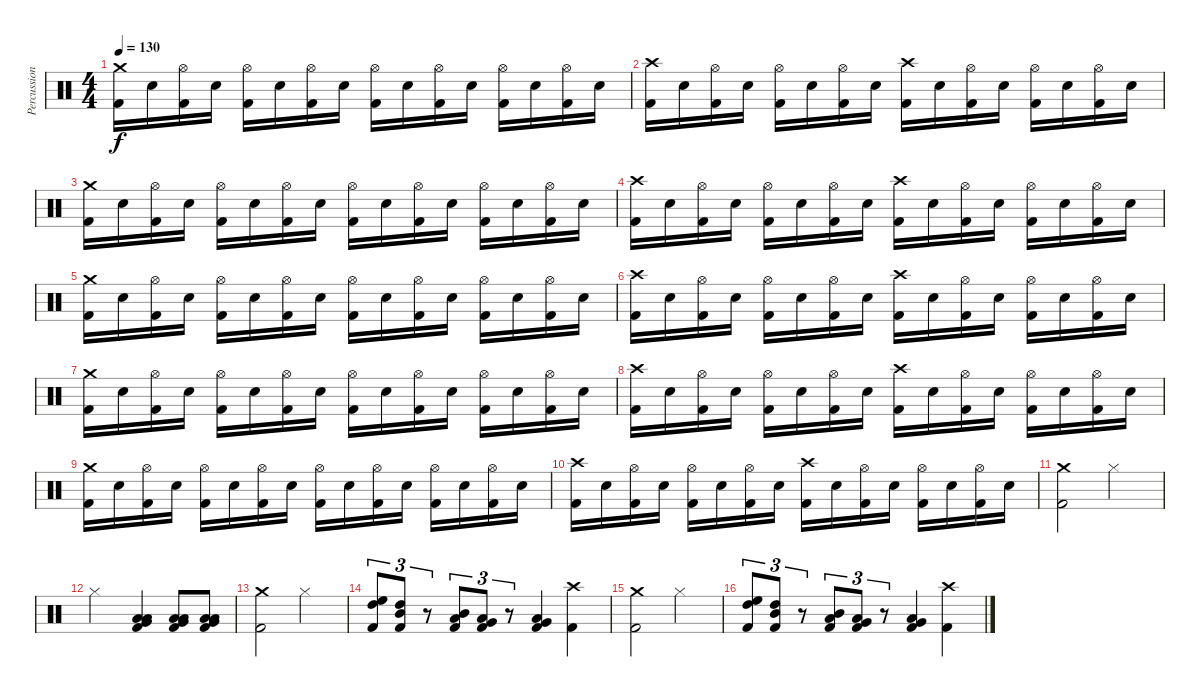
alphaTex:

\track ("Percussion" "Percussion") {instrument percussion}
\staff {score}
\articulation defaults
\ts (4 4)
\tempo 130
\clef neutral
\ks c
("Kick (hit) 2" "Crash medium (hit)").16{dy f} "Electric Snare (hit)".16 ("Kick (hit) 2" "Hi-Hat (open)").16 "Electric Snare (hit)".16 ("Kick (hit) 2" "Hi-Hat (open)").16 "Electric Snare (hit)".16 ("Kick (hit) 2" "Hi-Hat (open)").16 "Electric Snare (hit)".16 ("Kick (hit) 2" "Hi-Hat (open)").16 "Electric Snare (hit)".16 ("Kick (hit) 2" "Hi-Hat (open)").16 "Electric Snare (hit)".16 ("Kick (hit) 2" "Hi-Hat (open)").16 "Electric Snare (hit)".16 ("Kick (hit) 2" "Hi-Hat (open)").16 "Electric Snare (hit)".16 |
("Kick (hit) 2" "Crash high (hit)").16 "Electric Snare (hit)".16 ("Kick (hit) 2" "Hi-Hat (open)").16 "Electric Snare (hit)".16 ("Kick (hit) 2" "Hi-Hat (open)").16 "Electric Snare (hit)".16 ("Kick (hit) 2" "Hi-Hat (open)").16 "Electric Snare (hit)".16 ("Kick (hit) 2" "Crash high (hit)").16 "Electric Snare (hit)".16 ("Kick (hit) 2" "Hi-Hat (open)").16 "Electric Snare (hit)".16 ("Kick (hit) 2" "Hi-Hat (open)").16 "Electric Snare (hit)".16 ("Kick (hit) 2" "Hi-Hat (open)").16 "Electric Snare (hit)".16 |
("Kick (hit) 2" "Crash medium (hit)").16 "Electric Snare (hit)".16 ("Kick (hit) 2" "Hi-Hat (open)").16 "Electric Snare (hit)".16 ("Kick (hit) 2" "Hi-Hat (open)").16 "Electric Snare (hit)".16 ("Kick (hit) 2" "Hi-Hat (open)").16 "Electric Snare (hit)".16 ("Kick (hit) 2" "Hi-Hat (open)").16 "Electric Snare (hit)".16 ("Kick (hit) 2" "Hi-Hat (open)").16 "Electric Snare (hit)".16 ("Kick (hit) 2" "Hi-Hat (open)").16 "Electric Snare (hit)".16 ("Kick (hit) 2" "Hi-Hat (open)").16 "Electric Snare (hit)".16 |
("Kick (hit) 2" "Crash high (hit)").16 "Electric Snare (hit)".16 ("Kick (hit) 2" "Hi-Hat (open)").16 "Electric Snare (hit)".16 ("Kick (hit) 2" "Hi-Hat (open)").16 "Electric Snare (hit)".16 ("Kick (hit) 2" "Hi-Hat (open)").16 "Electric Snare (hit)".16 ("Kick (hit) 2" "Crash high (hit)").16 "Electric Snare (hit)".16 ("Kick (hit) 2" "Hi-Hat (open)").16 "Electric Snare (hit)".16 ("Kick (hit) 2" "Hi-Hat (open)").16 "Electric Snare (hit)".16 ("Kick (hit) 2" "Hi-Hat (open)").16 "Electric Snare (hit)".16 |
("Kick (hit) 2" "Crash medium (hit)").16 "Electric Snare (hit)".16 ("Kick (hit) 2" "Hi-Hat (open)").16 "Electric Snare (hit)".16 ("Kick (hit) 2" "Hi-Hat (open)").16 "Electric Snare (hit)".16 ("Kick (hit) 2" "Hi-Hat (open)").16 "Electric Snare (hit)".16 ("Kick (hit) 2" "Hi-Hat (open)").16 "Electric Snare (hit)".16 ("Kick (hit) 2" "Hi-Hat (open)").16 "Electric Snare (hit)".16 ("Kick (hit) 2" "Hi-Hat (open)").16 "Electric Snare (hit)".16 ("Kick (hit) 2" "Hi-Hat (open)").16 "Electric Snare (hit)".16 |
("Kick (hit) 2" "Crash high (hit)").16 "Electric Snare (hit)".16 ("Kick (hit) 2" "Hi-Hat (open)").16 "Electric Snare (hit)".16 ("Kick (hit) 2" "Hi-Hat (open)").16 "Electric Snare (hit)".16 ("Kick (hit) 2" "Hi-Hat (open)").16 "Electric Snare (hit)".16 ("Kick (hit) 2" "Crash high (hit)").16 "Electric Snare (hit)".16 ("Kick (hit) 2" "Hi-Hat (open)").16 "Electric Snare (hit)".16 ("Kick (hit) 2" "Hi-Hat (open)").16 "Electric Snare (hit)".16 ("Kick (hit) 2" "Hi-Hat (open)").16 "Electric Snare (hit)".16 |
("Kick (hit) 2" "Crash medium (hit)").16 "Electric Snare (hit)".16 ("Kick (hit) 2" "Hi-Hat (open)").16 "Electric Snare (hit)".16 ("Kick (hit) 2" "Hi-Hat (open)").16 "Electric Snare (hit)".16 ("Kick (hit) 2" "Hi-Hat (open)").16 "Electric Snare (hit)".16 ("Kick (hit) 2" "Hi-Hat (open)").16 "Electric Snare (hit)".16 ("Kick (hit) 2" "Hi-Hat (open)").16 "Electric Snare (hit)".16 ("Kick (hit) 2" "Hi-Hat (open)").16 "Electric Snare (hit)".16 ("Kick (hit) 2" "Hi-Hat (open)").16 "Electric Snare (hit)".16 |
("Kick (hit) 2" "Crash high (hit)").16 "Electric Snare (hit)".16 ("Kick (hit) 2" "Hi-Hat (open)").16 "Electric Snare (hit)".16 ("Kick (hit) 2" "Hi-Hat (open)").16 "Electric Snare (hit)".16 ("Kick (hit) 2" "Hi-Hat (open)").16 "Electric Snare (hit)".16 ("Kick (hit) 2" "Crash high (hit)").16 "Electric Snare (hit)".16 ("Kick (hit) 2" "Hi-Hat (open)").16 "Electric Snare (hit)".16 ("Kick (hit) 2" "Hi-Hat (open)").16 "Electric Snare (hit)".16 ("Kick (hit) 2" "Hi-Hat (open)").16 "Electric Snare (hit)".16 |
("Kick (hit) 2" "Crash medium (hit)").16 "Electric Snare (hit)".16 ("Kick (hit) 2" "Hi-Hat (open)").16 "Electric Snare (hit)".16 ("Kick (hit) 2" "Hi-Hat (open)").16 "Electric Snare (hit)".16 ("Kick (hit) 2" "Hi-Hat (open)").16 "Electric Snare (hit)".16 ("Kick (hit) 2" "Hi-Hat (open)").16 "Electric Snare (hit)".16 ("Kick (hit) 2" "Hi-Hat (open)").16 "Electric Snare (hit)".16 ("Kick (hit) 2" "Hi-Hat (open)").16 "Electric Snare (hit)".16 ("Kick (hit) 2" "Hi-Hat (open)").16 "Electric Snare (hit)".16 |
("Kick (hit) 2" "Crash high (hit)").16 "Electric Snare (hit)".16 ("Kick (hit) 2" "Hi-Hat (open)").16 "Electric Snare (hit)".16 ("Kick (hit) 2" "Hi-Hat (open)").16 "Electric Snare (hit)".16 ("Kick (hit) 2" "Hi-Hat (open)").16 "Electric Snare (hit)".16 ("Kick (hit) 2" "Crash high (hit)").16 "Electric Snare (hit)".16 ("Kick (hit) 2" "Hi-Hat (open)").16 "Electric Snare (hit)".16 ("Kick (hit) 2" "Hi-Hat (open)").16 "Electric Snare (hit)".16 ("Kick (hit) 2" "Hi-Hat (open)").16 "Electric Snare (hit)".16 |
("Kick (hit) 2" "Crash medium (hit)").2 "Hi-Hat (closed)".2 |
"Hi-Hat (closed)".2 ("Kick (hit) 2" "Low Floor Tom (hit)" "Very Low Tom (hit)" "Low Tom (hit)").4 ("Kick (hit) 2" "Low Floor Tom (hit)" "Very Low Tom (hit)" "Low Tom (hit)").8 ("Kick (hit) 2" "Low Floor Tom (hit)" "Very Low Tom (hit)" "Low Tom (hit)").8 |
("Kick (hit) 2" "Crash medium (hit)").2 "Hi-Hat (closed)".2 |
("Kick (hit) 2" "High Floor Tom (hit)" "High Tom (hit)").8{tu (3 2)} ("Kick (hit) 2" "High Tom (hit)" "Mid Tom (hit)").8{tu (3 2)} r.8{tu (3 2)} ("Kick (hit) 2" "Mid Tom (hit)" "Low Tom (hit)").8{tu (3 2)} ("Kick (hit) 2" "Low Tom (hit)" "Very Low Tom (hit)").8{tu (3 2)} r.8{tu (3 2)} ("Kick (hit) 2" "Very Low Tom (hit)" "Low Floor Tom (hit)").4 ("Kick (hit) 2" "Crash high (hit)").4 |
("Kick (hit) 2" "Crash medium (hit)").2 "Hi-Hat (closed)".2 |
("Kick (hit) 2" "High Floor Tom (hit)" "High Tom (hit)").8{tu (3 2)} ("Kick (hit) 2" "High Tom (hit)" "Mid Tom (hit)").8{tu (3 2)} r.8{tu (3 2)} ("Kick (hit) 2" "Mid Tom (hit)" "Low Tom (hit)").8{tu (3 2)} ("Kick (hit) 2" "Low Tom (hit)" "Very Low Tom (hit)").8{tu (3 2)} r.8{tu (3 2)} ("Kick (hit) 2" "Very Low Tom (hit)" "Low Floor Tom (hit)").4 ("Kick (hit) 2" "Crash high (hit)").4
